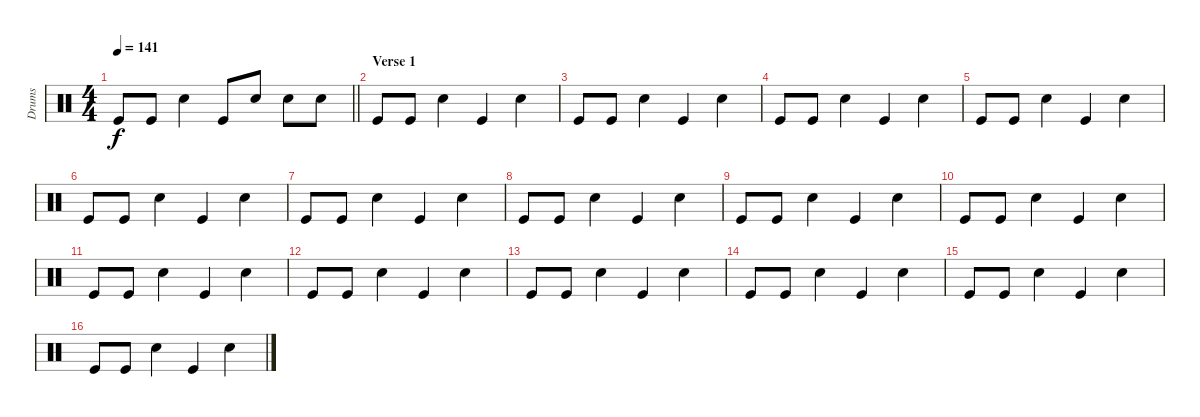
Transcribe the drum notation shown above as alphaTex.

\track ("Drums" "Drums") {instrument percussion}
\staff {score}
\articulation defaults
\ts (4 4)
\tempo 141
\clef neutral
\barLineRight lightlight
\ks c "Kick (hit)".8{dy f} "Kick (hit)".8 "Snare (hit) 2".4 "Kick (hit)".8 "Snare (hit) 2".8 "Snare (hit) 2".8 "Snare (hit) 2".8
|
\section ("" "Verse 1")
"Kick (hit)".8 "Kick (hit)".8 "Snare (hit) 2".4 "Kick (hit)".4 "Snare (hit) 2".4 |
"Kick (hit)".8 "Kick (hit)".8 "Snare (hit) 2".4 "Kick (hit)".4 "Snare (hit) 2".4 |
"Kick (hit)".8 "Kick (hit)".8 "Snare (hit) 2".4 "Kick (hit)".4 "Snare (hit) 2".4 |
"Kick (hit)".8 "Kick (hit)".8 "Snare (hit) 2".4 "Kick (hit)".4 "Snare (hit) 2".4 |
"Kick (hit)".8 "Kick (hit)".8 "Snare (hit) 2".4 "Kick (hit)".4 "Snare (hit) 2".4 |
"Kick (hit)".8 "Kick (hit)".8 "Snare (hit) 2".4 "Kick (hit)".4 "Snare (hit) 2".4 |
"Kick (hit)".8 "Kick (hit)".8 "Snare (hit) 2".4 "Kick (hit)".4 "Snare (hit) 2".4 |
"Kick (hit)".8 "Kick (hit)".8 "Snare (hit) 2".4 "Kick (hit)".4 "Snare (hit) 2".4 |
"Kick (hit)".8 "Kick (hit)".8 "Snare (hit) 2".4 "Kick (hit)".4 "Snare (hit) 2".4 |
"Kick (hit)".8 "Kick (hit)".8 "Snare (hit) 2".4 "Kick (hit)".4 "Snare (hit) 2".4 |
"Kick (hit)".8 "Kick (hit)".8 "Snare (hit) 2".4 "Kick (hit)".4 "Snare (hit) 2".4 |
"Kick (hit)".8 "Kick (hit)".8 "Snare (hit) 2".4 "Kick (hit)".4 "Snare (hit) 2".4 |
"Kick (hit)".8 "Kick (hit)".8 "Snare (hit) 2".4 "Kick (hit)".4 "Snare (hit) 2".4 |
"Kick (hit)".8 "Kick (hit)".8 "Snare (hit) 2".4 "Kick (hit)".4 "Snare (hit) 2".4 |
"Kick (hit)".8 "Kick (hit)".8 "Snare (hit) 2".4 "Kick (hit)".4 "Snare (hit) 2".4
